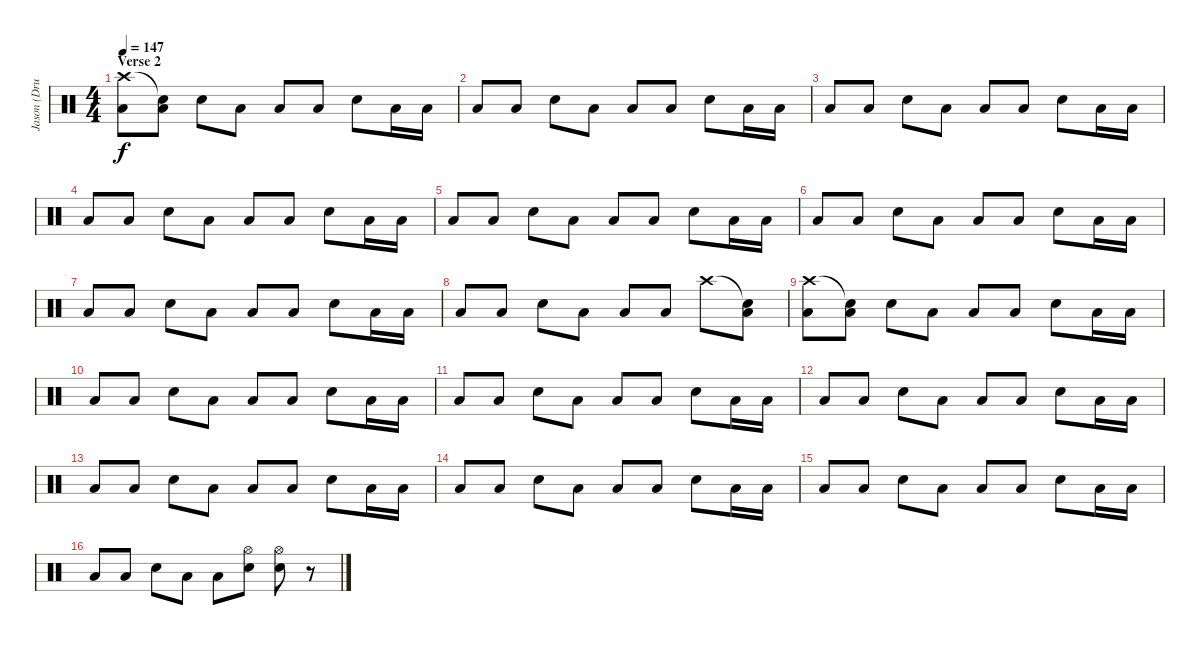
\track ("Jason (Drums)" "Jason (Dru") {instrument percussion}
\staff {score}
\articulation defaults
\ts (4 4)
\section ("" "Verse 2")
\tempo 147
\clef neutral
\ks c
("Crash high (hit)" "Low Tom (hit)").8{dy f} ("Snare (hit)"{t} "Low Floor Tom (hit)").8 "Electric Snare (hit)".8 "Low Floor Tom (hit)".8 "Low Floor Tom (hit)".8 "Low Floor Tom (hit)".8 "Electric Snare (hit)".8 "Low Tom (hit)".16 "Low Tom (hit)".16 |
"Low Tom (hit)".8 "Low Floor Tom (hit)".8 "Electric Snare (hit)".8 "Low Floor Tom (hit)".8 "Low Floor Tom (hit)".8 "Low Floor Tom (hit)".8 "Electric Snare (hit)".8 "Low Tom (hit)".16 "Low Tom (hit)".16 |
"Low Tom (hit)".8 "Low Floor Tom (hit)".8 "Electric Snare (hit)".8 "Low Floor Tom (hit)".8 "Low Floor Tom (hit)".8 "Low Floor Tom (hit)".8 "Electric Snare (hit)".8 "Low Tom (hit)".16 "Low Tom (hit)".16 |
"Low Tom (hit)".8 "Low Floor Tom (hit)".8 "Electric Snare (hit)".8 "Low Floor Tom (hit)".8 "Low Floor Tom (hit)".8 "Low Floor Tom (hit)".8 "Electric Snare (hit)".8 "Low Tom (hit)".16 "Low Tom (hit)".16 |
"Low Tom (hit)".8 "Low Floor Tom (hit)".8 "Electric Snare (hit)".8 "Low Floor Tom (hit)".8 "Low Floor Tom (hit)".8 "Low Floor Tom (hit)".8 "Electric Snare (hit)".8 "Low Tom (hit)".16 "Low Tom (hit)".16 |
"Low Tom (hit)".8 "Low Floor Tom (hit)".8 "Electric Snare (hit)".8 "Low Floor Tom (hit)".8 "Low Floor Tom (hit)".8 "Low Floor Tom (hit)".8 "Electric Snare (hit)".8 "Low Tom (hit)".16 "Low Tom (hit)".16 |
"Low Tom (hit)".8 "Low Floor Tom (hit)".8 "Electric Snare (hit)".8 "Low Floor Tom (hit)".8 "Low Floor Tom (hit)".8 "Low Floor Tom (hit)".8 "Electric Snare (hit)".8 "Low Tom (hit)".16 "Low Tom (hit)".16 |
"Low Tom (hit)".8 "Low Floor Tom (hit)".8 "Electric Snare (hit)".8 "Low Floor Tom (hit)".8 "Low Floor Tom (hit)".8 "Low Floor Tom (hit)".8 "Crash high (hit)".8 ("Snare (hit)"{t} "Low Tom (hit)").8 |
("Crash high (hit)" "Low Tom (hit)").8 ("Snare (hit)"{t} "Low Floor Tom (hit)").8 "Electric Snare (hit)".8 "Low Floor Tom (hit)".8 "Low Floor Tom (hit)".8 "Low Floor Tom (hit)".8 "Electric Snare (hit)".8 "Low Tom (hit)".16 "Low Tom (hit)".16 |
"Low Tom (hit)".8 "Low Floor Tom (hit)".8 "Electric Snare (hit)".8 "Low Floor Tom (hit)".8 "Low Floor Tom (hit)".8 "Low Floor Tom (hit)".8 "Electric Snare (hit)".8 "Low Tom (hit)".16 "Low Tom (hit)".16 |
"Low Tom (hit)".8 "Low Floor Tom (hit)".8 "Electric Snare (hit)".8 "Low Floor Tom (hit)".8 "Low Floor Tom (hit)".8 "Low Floor Tom (hit)".8 "Electric Snare (hit)".8 "Low Tom (hit)".16 "Low Tom (hit)".16 |
"Low Tom (hit)".8 "Low Floor Tom (hit)".8 "Electric Snare (hit)".8 "Low Floor Tom (hit)".8 "Low Floor Tom (hit)".8 "Low Floor Tom (hit)".8 "Electric Snare (hit)".8 "Low Tom (hit)".16 "Low Tom (hit)".16 |
"Low Tom (hit)".8 "Low Floor Tom (hit)".8 "Electric Snare (hit)".8 "Low Floor Tom (hit)".8 "Low Floor Tom (hit)".8 "Low Floor Tom (hit)".8 "Electric Snare (hit)".8 "Low Tom (hit)".16 "Low Tom (hit)".16 |
"Low Tom (hit)".8 "Low Floor Tom (hit)".8 "Electric Snare (hit)".8 "Low Floor Tom (hit)".8 "Low Floor Tom (hit)".8 "Low Floor Tom (hit)".8 "Electric Snare (hit)".8 "Low Tom (hit)".16 "Low Tom (hit)".16 |
"Low Tom (hit)".8 "Low Floor Tom (hit)".8 "Electric Snare (hit)".8 "Low Floor Tom (hit)".8 "Low Floor Tom (hit)".8 "Low Floor Tom (hit)".8 "Electric Snare (hit)".8 "Low Tom (hit)".16 "Low Tom (hit)".16 |
"Low Tom (hit)".8 "Low Floor Tom (hit)".8 "Electric Snare (hit)".8 "Low Floor Tom (hit)".8 "Low Floor Tom (hit)".8 ("Hi-Hat (open)" "Snare (hit) 2").8 ("Hi-Hat (open)" "Snare (hit) 2").8 r.8
